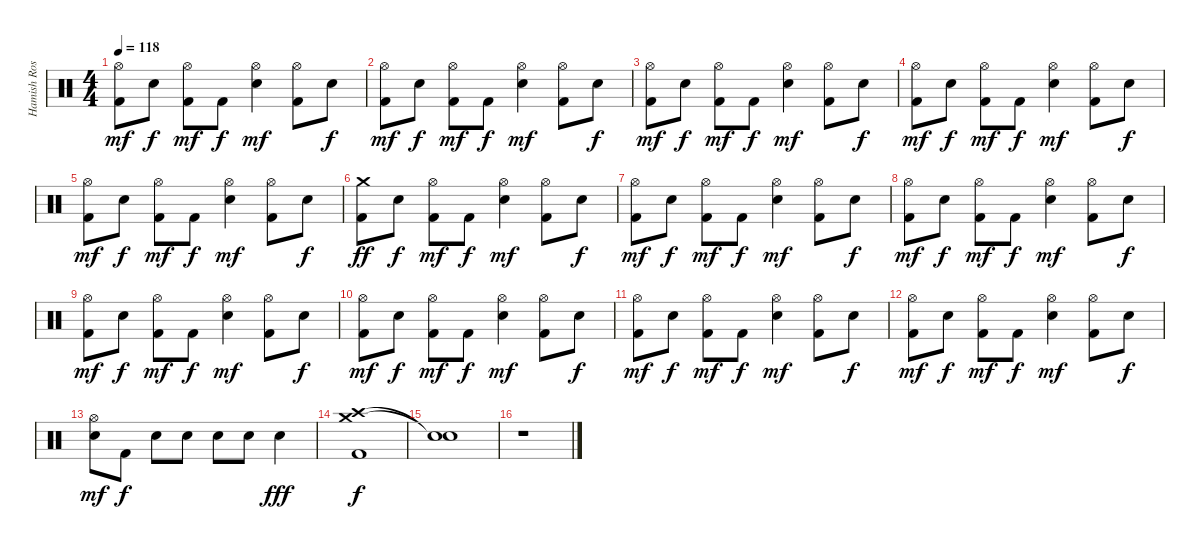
\track ("Hamish Rosser" "Hamish Ros") {instrument percussion}
\staff {score}
\articulation defaults
\ts (4 4)
\tempo 118
\clef neutral
\ks c
("Hi-Hat (open)" "Kick (hit) 2").8{dy mf} "Electric Snare (hit)".8{dy f} ("Hi-Hat (open)" "Kick (hit) 2").8{dy mf} "Kick (hit) 2".8{dy f} ("Hi-Hat (open)" "Electric Snare (hit)").4{dy mf} ("Hi-Hat (open)" "Kick (hit) 2").8 "Electric Snare (hit)".8{dy f} |
("Hi-Hat (open)" "Kick (hit) 2").8{dy mf} "Electric Snare (hit)".8{dy f} ("Hi-Hat (open)" "Kick (hit) 2").8{dy mf} "Kick (hit) 2".8{dy f} ("Hi-Hat (open)" "Electric Snare (hit)").4{dy mf} ("Hi-Hat (open)" "Kick (hit) 2").8 "Electric Snare (hit)".8{dy f} |
("Hi-Hat (open)" "Kick (hit) 2").8{dy mf} "Electric Snare (hit)".8{dy f} ("Hi-Hat (open)" "Kick (hit) 2").8{dy mf} "Kick (hit) 2".8{dy f} ("Hi-Hat (open)" "Electric Snare (hit)").4{dy mf} ("Hi-Hat (open)" "Kick (hit) 2").8 "Electric Snare (hit)".8{dy f} |
("Hi-Hat (open)" "Kick (hit) 2").8{dy mf} "Electric Snare (hit)".8{dy f} ("Hi-Hat (open)" "Kick (hit) 2").8{dy mf} "Kick (hit) 2".8{dy f} ("Hi-Hat (open)" "Electric Snare (hit)").4{dy mf} ("Hi-Hat (open)" "Kick (hit) 2").8 "Electric Snare (hit)".8{dy f} |
("Hi-Hat (open)" "Kick (hit) 2").8{dy mf} "Electric Snare (hit)".8{dy f} ("Hi-Hat (open)" "Kick (hit) 2").8{dy mf} "Kick (hit) 2".8{dy f} ("Hi-Hat (open)" "Electric Snare (hit)").4{dy mf} ("Hi-Hat (open)" "Kick (hit) 2").8 "Electric Snare (hit)".8{dy f} |
("Crash medium (hit)" "Kick (hit) 2").8{dy ff} "Electric Snare (hit)".8{dy f} ("Hi-Hat (open)" "Kick (hit) 2").8{dy mf} "Kick (hit) 2".8{dy f} ("Hi-Hat (open)" "Electric Snare (hit)").4{dy mf} ("Hi-Hat (open)" "Kick (hit) 2").8 "Electric Snare (hit)".8{dy f} |
("Hi-Hat (open)" "Kick (hit) 2").8{dy mf} "Electric Snare (hit)".8{dy f} ("Hi-Hat (open)" "Kick (hit) 2").8{dy mf} "Kick (hit) 2".8{dy f} ("Hi-Hat (open)" "Electric Snare (hit)").4{dy mf} ("Hi-Hat (open)" "Kick (hit) 2").8 "Electric Snare (hit)".8{dy f} |
("Hi-Hat (open)" "Kick (hit) 2").8{dy mf} "Electric Snare (hit)".8{dy f} ("Hi-Hat (open)" "Kick (hit) 2").8{dy mf} "Kick (hit) 2".8{dy f} ("Hi-Hat (open)" "Electric Snare (hit)").4{dy mf} ("Hi-Hat (open)" "Kick (hit) 2").8 "Electric Snare (hit)".8{dy f} |
("Hi-Hat (open)" "Kick (hit) 2").8{dy mf} "Electric Snare (hit)".8{dy f} ("Hi-Hat (open)" "Kick (hit) 2").8{dy mf} "Kick (hit) 2".8{dy f} ("Hi-Hat (open)" "Electric Snare (hit)").4{dy mf} ("Hi-Hat (open)" "Kick (hit) 2").8 "Electric Snare (hit)".8{dy f} |
("Hi-Hat (open)" "Kick (hit) 2").8{dy mf} "Electric Snare (hit)".8{dy f} ("Hi-Hat (open)" "Kick (hit) 2").8{dy mf} "Kick (hit) 2".8{dy f} ("Hi-Hat (open)" "Electric Snare (hit)").4{dy mf} ("Hi-Hat (open)" "Kick (hit) 2").8 "Electric Snare (hit)".8{dy f} |
("Hi-Hat (open)" "Kick (hit) 2").8{dy mf} "Electric Snare (hit)".8{dy f} ("Hi-Hat (open)" "Kick (hit) 2").8{dy mf} "Kick (hit) 2".8{dy f} ("Hi-Hat (open)" "Electric Snare (hit)").4{dy mf} ("Hi-Hat (open)" "Kick (hit) 2").8 "Electric Snare (hit)".8{dy f} |
("Hi-Hat (open)" "Kick (hit) 2").8{dy mf} "Electric Snare (hit)".8{dy f} ("Hi-Hat (open)" "Kick (hit) 2").8{dy mf} "Kick (hit) 2".8{dy f} ("Hi-Hat (open)" "Electric Snare (hit)").4{dy mf} ("Hi-Hat (open)" "Kick (hit) 2").8 "Electric Snare (hit)".8{dy f} |
("Hi-Hat (open)" "Electric Snare (hit)").8{dy mf} "Kick (hit) 2".8{dy f} "Electric Snare (hit)".8 "Electric Snare (hit)".8 "Electric Snare (hit)".8 "Electric Snare (hit)".8 "Electric Snare (hit)".4{dy fff} |
("Crash medium (hit)" "Crash high (hit)" "Kick (hit) 2").1{dy f} |
("Snare (hit)"{t} "Snare (hit)"{t}).1 |
r.1
